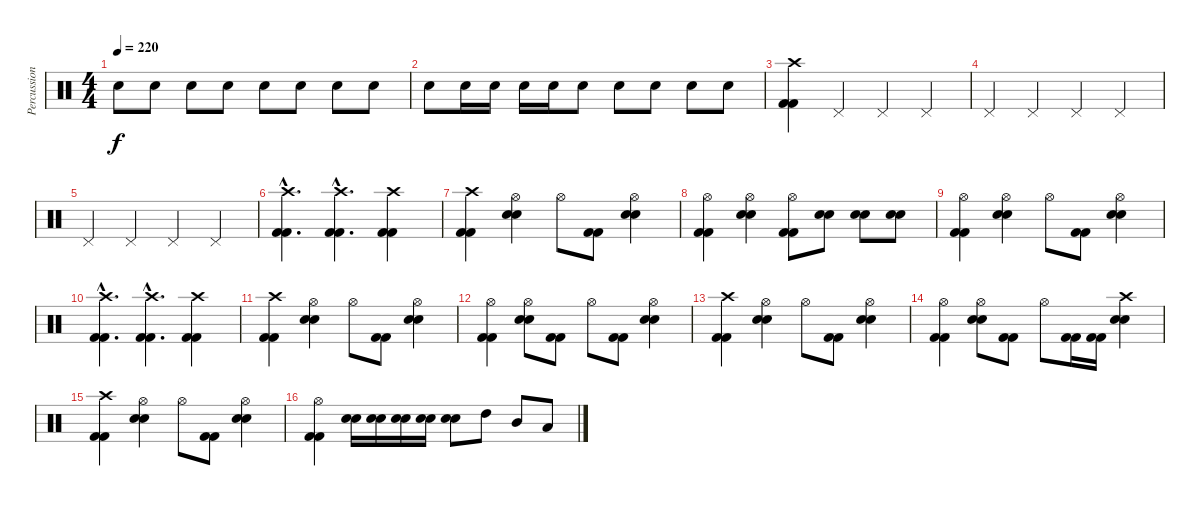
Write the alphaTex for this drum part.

\track ("Percussion" "Percussion") {instrument percussion}
\staff {score}
\articulation defaults
\ts (4 4)
\tempo 220
\clef neutral
\ks c "Electric Snare (hit)".8{dy f} "Electric Snare (hit)".8 "Electric Snare (hit)".8 "Electric Snare (hit)".8 "Electric Snare (hit)".8 "Electric Snare (hit)".8 "Electric Snare (hit)".8 "Electric Snare (hit)".8
|
"Electric Snare (hit)".8 "Electric Snare (hit)".16 "Electric Snare (hit)".16 "Electric Snare (hit)".16 "Electric Snare (hit)".16 "Electric Snare (hit)".8 "Electric Snare (hit)".8 "Electric Snare (hit)".8 "Electric Snare (hit)".8 "Electric Snare (hit)".8 |
("Crash high (hit)" "Kick (hit) 2" "Kick (hit) 2").4 "Pedal Hi-Hat (hit)".4 "Pedal Hi-Hat (hit)".4 "Pedal Hi-Hat (hit)".4 |
"Pedal Hi-Hat (hit)".4 "Pedal Hi-Hat (hit)".4 "Pedal Hi-Hat (hit)".4 "Pedal Hi-Hat (hit)".4 |
"Pedal Hi-Hat (hit)".4 "Pedal Hi-Hat (hit)".4 "Pedal Hi-Hat (hit)".4 "Pedal Hi-Hat (hit)".4 |
("Crash high (hit)"{hac} "Kick (hit) 2"{hac} "Kick (hit) 2"{hac}).4{d} ("Crash high (hit)"{hac} "Kick (hit) 2"{hac} "Kick (hit) 2"{hac}).4{d} ("Crash high (hit)" "Kick (hit) 2" "Kick (hit) 2").4 |
("Crash high (hit)" "Kick (hit) 2" "Kick (hit) 2").4 ("Hi-Hat (open)" "Electric Snare (hit)" "Electric Snare (hit)").4 "Hi-Hat (open)".8 ("Kick (hit) 2" "Kick (hit) 2").8 ("Hi-Hat (open)" "Electric Snare (hit)" "Electric Snare (hit)").4 |
("Hi-Hat (open)" "Kick (hit) 2" "Kick (hit) 2").4 ("Hi-Hat (open)" "Electric Snare (hit)" "Electric Snare (hit)").4 ("Hi-Hat (open)" "Kick (hit) 2" "Kick (hit) 2").8 ("Electric Snare (hit)" "Electric Snare (hit)").8 ("Electric Snare (hit)" "Electric Snare (hit)").8 ("Electric Snare (hit)" "Electric Snare (hit)").8 |
("Hi-Hat (open)" "Kick (hit) 2" "Kick (hit) 2").4 ("Hi-Hat (open)" "Electric Snare (hit)" "Electric Snare (hit)").4 "Hi-Hat (open)".8 ("Kick (hit) 2" "Kick (hit) 2").8 ("Hi-Hat (open)" "Electric Snare (hit)" "Electric Snare (hit)").4 |
("Crash high (hit)"{hac} "Kick (hit) 2"{hac} "Kick (hit) 2"{hac}).4{d} ("Crash high (hit)"{hac} "Kick (hit) 2"{hac} "Kick (hit) 2"{hac}).4{d} ("Crash high (hit)" "Kick (hit) 2" "Kick (hit) 2").4 |
("Crash high (hit)" "Kick (hit) 2" "Kick (hit) 2").4 ("Hi-Hat (open)" "Electric Snare (hit)" "Electric Snare (hit)").4 "Hi-Hat (open)".8 ("Kick (hit) 2" "Kick (hit) 2").8 ("Hi-Hat (open)" "Electric Snare (hit)" "Electric Snare (hit)").4 |
("Hi-Hat (open)" "Kick (hit) 2" "Kick (hit) 2").4 ("Hi-Hat (open)" "Electric Snare (hit)" "Electric Snare (hit)").8 ("Kick (hit) 2" "Kick (hit) 2").8 "Hi-Hat (open)".8 ("Kick (hit) 2" "Kick (hit) 2").8 ("Hi-Hat (open)" "Electric Snare (hit)" "Electric Snare (hit)").4 |
("Crash high (hit)" "Kick (hit) 2" "Kick (hit) 2").4 ("Hi-Hat (open)" "Electric Snare (hit)" "Electric Snare (hit)").4 "Hi-Hat (open)".8 ("Kick (hit) 2" "Kick (hit) 2").8 ("Hi-Hat (open)" "Electric Snare (hit)" "Electric Snare (hit)").4 |
("Hi-Hat (open)" "Kick (hit) 2" "Kick (hit) 2").4 ("Hi-Hat (open)" "Electric Snare (hit)" "Electric Snare (hit)").8 ("Kick (hit) 2" "Kick (hit) 2").8 "Hi-Hat (open)".8 ("Kick (hit) 2" "Kick (hit) 2").16 ("Kick (hit) 2" "Kick (hit) 2").16 ("Crash high (hit)" "Electric Snare (hit)" "Electric Snare (hit)").4 |
("Crash high (hit)" "Kick (hit) 2" "Kick (hit) 2").4 ("Hi-Hat (open)" "Electric Snare (hit)" "Electric Snare (hit)").4 "Hi-Hat (open)".8 ("Kick (hit) 2" "Kick (hit) 2").8 ("Hi-Hat (open)" "Electric Snare (hit)" "Electric Snare (hit)").4 |
("Hi-Hat (open)" "Kick (hit) 2" "Kick (hit) 2").4 ("Electric Snare (hit)" "Electric Snare (hit)").16 ("Electric Snare (hit)" "Electric Snare (hit)").16 ("Electric Snare (hit)" "Electric Snare (hit)").16 ("Electric Snare (hit)" "Electric Snare (hit)").16 ("Electric Snare (hit)" "Electric Snare (hit)").8 "High Tom (hit)".8 "Mid Tom (hit)".8 "Low Tom (hit)".8
